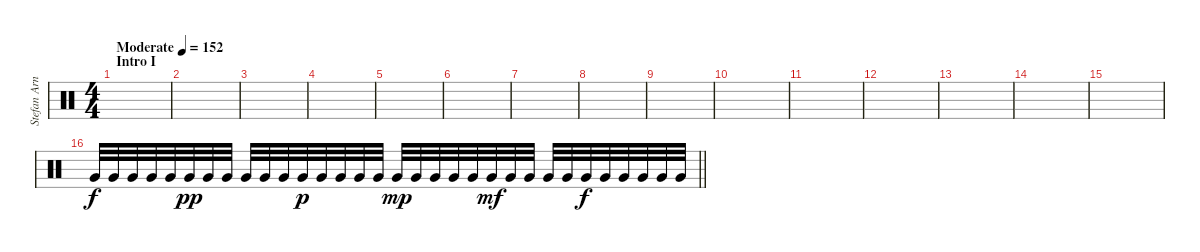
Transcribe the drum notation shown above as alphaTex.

\track ("Stefan Arnold" "Stefan Arn") {instrument percussion}
\staff {score}
\articulation defaults
\ts (4 4)
\section ("" "Intro I")
\tempo (152 "Moderate")
\clef neutral
\ks c
|
|
|
|
|
|
|
|
|
|
|
|
|
|
|
\barLineRight lightlight "Very Low Tom (hit)".32 "Very Low Tom (hit)".32 "Very Low Tom (hit)".32 "Very Low Tom (hit)".32 "Very Low Tom (hit)".32 "Very Low Tom (hit)".32{dy pp} "Very Low Tom (hit)".32 "Very Low Tom (hit)".32 "Very Low Tom (hit)".32 "Very Low Tom (hit)".32 "Very Low Tom (hit)".32 "Very Low Tom (hit)".32{dy p} "Very Low Tom (hit)".32 "Very Low Tom (hit)".32 "Very Low Tom (hit)".32 "Very Low Tom (hit)".32 "Very Low Tom (hit)".32{dy mp} "Very Low Tom (hit)".32 "Very Low Tom (hit)".32 "Very Low Tom (hit)".32 "Very Low Tom (hit)".32 "Very Low Tom (hit)".32{dy mf} "Very Low Tom (hit)".32 "Very Low Tom (hit)".32 "Very Low Tom (hit)".32 "Very Low Tom (hit)".32 "Very Low Tom (hit)".32{dy f} "Very Low Tom (hit)".32 "Very Low Tom (hit)".32 "Very Low Tom (hit)".32 "Very Low Tom (hit)".32 "Very Low Tom (hit)".32
